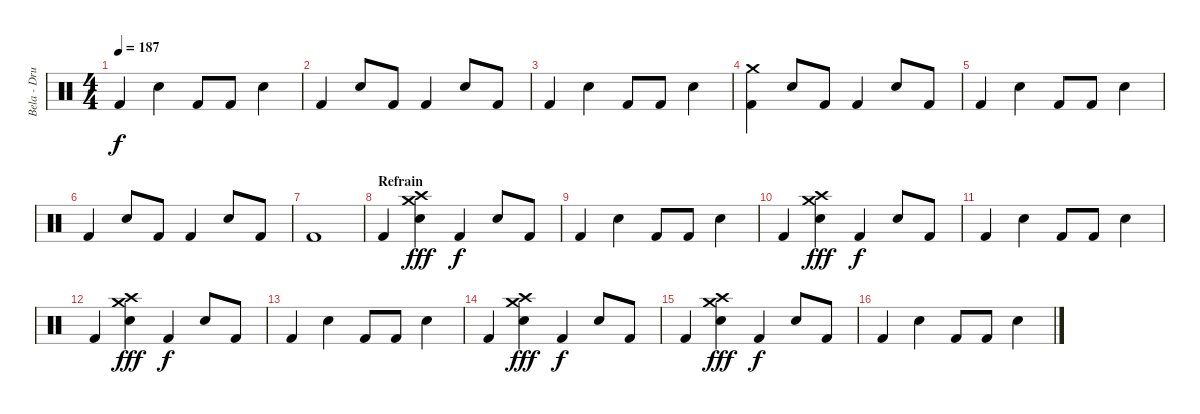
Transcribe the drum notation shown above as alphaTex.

\track ("Bela - Drums" "Bela - Dru") {instrument percussion}
\staff {score}
\articulation defaults
\ts (4 4)
\tempo 187
\clef neutral
\ks c "Kick (hit) 2".4{dy f} "Snare (hit) 2".4 "Kick (hit) 2".8 "Kick (hit) 2".8 "Snare (hit) 2".4
|
"Kick (hit) 2".4 "Snare (hit) 2".8 "Kick (hit) 2".8 "Kick (hit) 2".4 "Snare (hit) 2".8 "Kick (hit) 2".8 |
"Kick (hit) 2".4 "Snare (hit) 2".4 "Kick (hit) 2".8 "Kick (hit) 2".8 "Snare (hit) 2".4 |
("Crash medium (hit)" "Kick (hit) 2").4 "Snare (hit) 2".8 "Kick (hit) 2".8 "Kick (hit) 2".4 "Snare (hit) 2".8 "Kick (hit) 2".8 |
"Kick (hit) 2".4 "Snare (hit) 2".4 "Kick (hit) 2".8 "Kick (hit) 2".8 "Snare (hit) 2".4 |
"Kick (hit) 2".4 "Snare (hit) 2".8 "Kick (hit) 2".8 "Kick (hit) 2".4 "Snare (hit) 2".8 "Kick (hit) 2".8 |
"Kick (hit) 2".1 |
\section ("" "Refrain")
"Kick (hit) 2".4 ("Crash medium (hit)" "Crash high (hit)" "Snare (hit) 2").4{dy fff} "Kick (hit) 2".4{dy f} "Snare (hit) 2".8 "Kick (hit) 2".8 |
"Kick (hit) 2".4 "Snare (hit) 2".4 "Kick (hit) 2".8 "Kick (hit) 2".8 "Snare (hit) 2".4 |
"Kick (hit) 2".4 ("Crash medium (hit)" "Crash high (hit)" "Snare (hit) 2").4{dy fff} "Kick (hit) 2".4{dy f} "Snare (hit) 2".8 "Kick (hit) 2".8 |
"Kick (hit) 2".4 "Snare (hit) 2".4 "Kick (hit) 2".8 "Kick (hit) 2".8 "Snare (hit) 2".4 |
"Kick (hit) 2".4 ("Crash medium (hit)" "Crash high (hit)" "Snare (hit) 2").4{dy fff} "Kick (hit) 2".4{dy f} "Snare (hit) 2".8 "Kick (hit) 2".8 |
"Kick (hit) 2".4 "Snare (hit) 2".4 "Kick (hit) 2".8 "Kick (hit) 2".8 "Snare (hit) 2".4 |
"Kick (hit) 2".4 ("Crash medium (hit)" "Crash high (hit)" "Snare (hit) 2").4{dy fff} "Kick (hit) 2".4{dy f} "Snare (hit) 2".8 "Kick (hit) 2".8 |
"Kick (hit) 2".4 ("Crash medium (hit)" "Crash high (hit)" "Snare (hit) 2").4{dy fff} "Kick (hit) 2".4{dy f} "Snare (hit) 2".8 "Kick (hit) 2".8 |
"Kick (hit) 2".4 "Snare (hit) 2".4 "Kick (hit) 2".8 "Kick (hit) 2".8 "Snare (hit) 2".4
